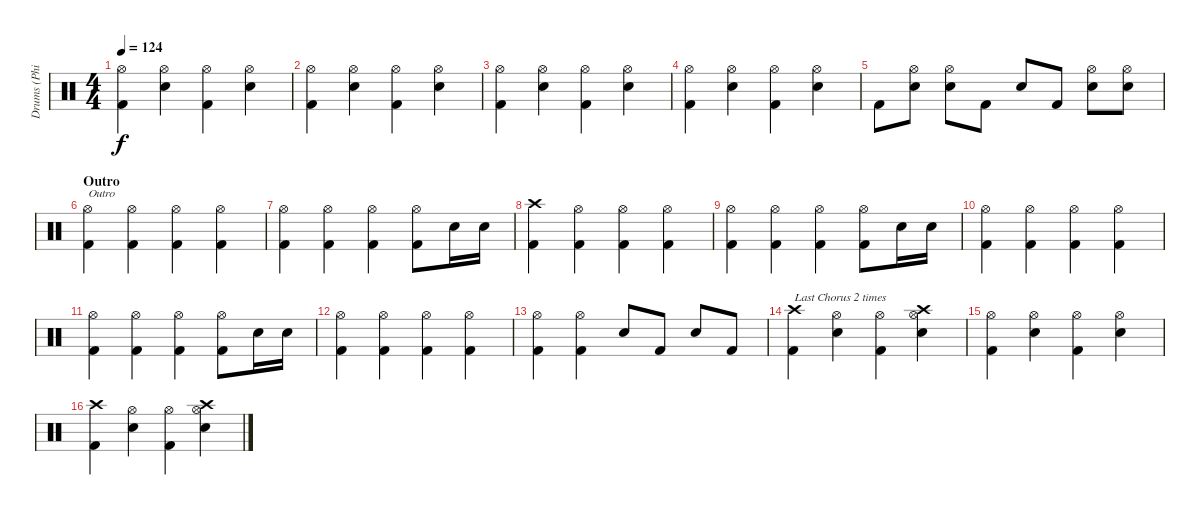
\track ("Drums (Phil R.)" "Drums (Phi") {instrument percussion}
\staff {score}
\articulation defaults
\ts (4 4)
\tempo 124
\clef neutral
\ks c
("Hi-Hat (open)" "Kick (hit) 2").4{dy f} ("Hi-Hat (open)" "Snare (hit) 2").4 ("Hi-Hat (open)" "Kick (hit) 2").4 ("Hi-Hat (open)" "Snare (hit) 2").4 |
("Hi-Hat (open)" "Kick (hit) 2").4 ("Hi-Hat (open)" "Snare (hit) 2").4 ("Hi-Hat (open)" "Kick (hit) 2").4 ("Hi-Hat (open)" "Snare (hit) 2").4 |
("Hi-Hat (open)" "Kick (hit) 2").4 ("Hi-Hat (open)" "Snare (hit) 2").4 ("Hi-Hat (open)" "Kick (hit) 2").4 ("Hi-Hat (open)" "Snare (hit) 2").4 |
("Hi-Hat (open)" "Kick (hit) 2").4 ("Hi-Hat (open)" "Snare (hit) 2").4 ("Hi-Hat (open)" "Kick (hit) 2").4 ("Hi-Hat (open)" "Snare (hit) 2").4 |
"Kick (hit) 2".8 ("Snare (hit) 2" "Hi-Hat (open)").8 ("Snare (hit) 2" "Hi-Hat (open)").8 "Kick (hit) 2".8 "Snare (hit) 2".8 "Kick (hit) 2".8 ("Snare (hit) 2" "Hi-Hat (open)").8 ("Snare (hit) 2" "Hi-Hat (open)").8 |
\section ("" "Outro")
("Hi-Hat (open)" "Kick (hit) 2").4{txt "Outro"} ("Hi-Hat (open)" "Kick (hit) 2").4 ("Hi-Hat (open)" "Kick (hit) 2").4 ("Hi-Hat (open)" "Kick (hit) 2").4 |
("Hi-Hat (open)" "Kick (hit) 2").4 ("Hi-Hat (open)" "Kick (hit) 2").4 ("Hi-Hat (open)" "Kick (hit) 2").4 ("Hi-Hat (open)" "Kick (hit) 2").8 "Snare (hit) 2".16 "Snare (hit) 2".16 |
("Crash high (hit)" "Kick (hit) 2").4 ("Hi-Hat (open)" "Kick (hit) 2").4 ("Hi-Hat (open)" "Kick (hit) 2").4 ("Hi-Hat (open)" "Kick (hit) 2").4 |
("Hi-Hat (open)" "Kick (hit) 2").4 ("Hi-Hat (open)" "Kick (hit) 2").4 ("Hi-Hat (open)" "Kick (hit) 2").4 ("Hi-Hat (open)" "Kick (hit) 2").8 "Snare (hit) 2".16 "Snare (hit) 2".16 |
("Hi-Hat (open)" "Kick (hit) 2").4 ("Hi-Hat (open)" "Kick (hit) 2").4 ("Hi-Hat (open)" "Kick (hit) 2").4 ("Hi-Hat (open)" "Kick (hit) 2").4 |
("Hi-Hat (open)" "Kick (hit) 2").4 ("Hi-Hat (open)" "Kick (hit) 2").4 ("Hi-Hat (open)" "Kick (hit) 2").4 ("Hi-Hat (open)" "Kick (hit) 2").8 "Snare (hit) 2".16 "Snare (hit) 2".16 |
("Hi-Hat (open)" "Kick (hit) 2").4 ("Hi-Hat (open)" "Kick (hit) 2").4 ("Hi-Hat (open)" "Kick (hit) 2").4 ("Hi-Hat (open)" "Kick (hit) 2").4 |
("Hi-Hat (open)" "Kick (hit) 2").4 ("Hi-Hat (open)" "Kick (hit) 2").4 "Snare (hit) 2".8 "Kick (hit) 2".8 "Snare (hit) 2".8 "Kick (hit) 2".8 |
("Crash high (hit)" "Kick (hit) 2").4{txt "Last Chorus 2 times"} ("Snare (hit) 2" "Hi-Hat (open)").4 ("Hi-Hat (open)" "Kick (hit) 2").4 ("Crash high (hit)" "Snare (hit) 2" "Hi-Hat (open)").4 |
("Hi-Hat (open)" "Kick (hit) 2").4 ("Snare (hit) 2" "Hi-Hat (open)").4 ("Hi-Hat (open)" "Kick (hit) 2").4 ("Snare (hit) 2" "Hi-Hat (open)").4 |
("Crash high (hit)" "Kick (hit) 2").4 ("Snare (hit) 2" "Hi-Hat (open)").4 ("Hi-Hat (open)" "Kick (hit) 2").4 ("Crash high (hit)" "Snare (hit) 2" "Hi-Hat (open)").4
